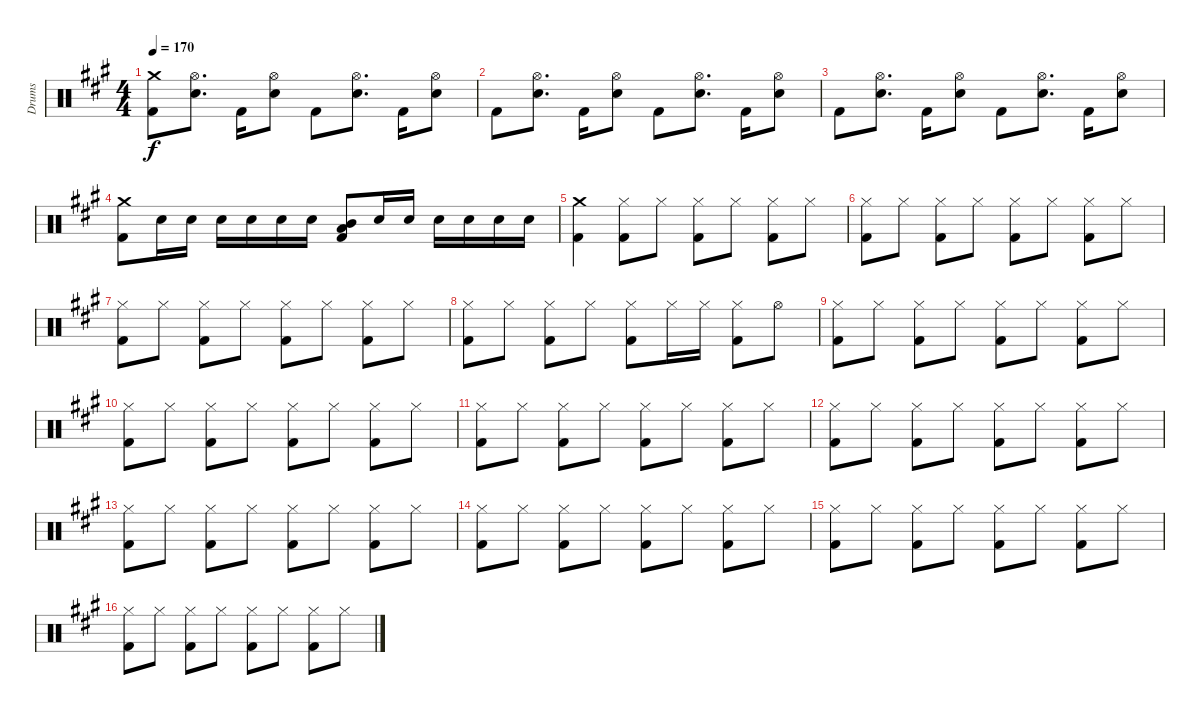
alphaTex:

\track ("Drums" "Drums") {instrument percussion}
\staff {score}
\articulation defaults
\ts (4 4)
\tempo 170
\clef neutral
\ks a
("Crash medium (hit)" "Kick (hit) 2").8{dy f} ("Hi-Hat (open)" "Electric Snare (hit)").8{d} "Kick (hit) 2".16 ("Hi-Hat (open)" "Electric Snare (hit)").8 "Kick (hit) 2".8 ("Hi-Hat (open)" "Electric Snare (hit)").8{d} "Kick (hit) 2".16 ("Hi-Hat (open)" "Electric Snare (hit)").8 |
"Kick (hit) 2".8 ("Hi-Hat (open)" "Electric Snare (hit)").8{d} "Kick (hit) 2".16 ("Hi-Hat (open)" "Electric Snare (hit)").8 "Kick (hit) 2".8 ("Hi-Hat (open)" "Electric Snare (hit)").8{d} "Kick (hit) 2".16 ("Hi-Hat (open)" "Electric Snare (hit)").8 |
"Kick (hit) 2".8 ("Hi-Hat (open)" "Electric Snare (hit)").8{d} "Kick (hit) 2".16 ("Hi-Hat (open)" "Electric Snare (hit)").8 "Kick (hit) 2".8 ("Hi-Hat (open)" "Electric Snare (hit)").8{d} "Kick (hit) 2".16 ("Hi-Hat (open)" "Electric Snare (hit)").8 |
("Crash medium (hit)" "Kick (hit) 2").8 "Electric Snare (hit)".16 "Electric Snare (hit)".16 "Electric Snare (hit)".16 "Electric Snare (hit)".16 "Electric Snare (hit)".16 "Electric Snare (hit)".16 ("Low Tom (hit)" "Mid Tom (hit)" "Kick (hit) 2").8 "Electric Snare (hit)".16 "Electric Snare (hit)".16 "Electric Snare (hit)".16 "Electric Snare (hit)".16 "Electric Snare (hit)".16 "Electric Snare (hit)".16 |
("Crash medium (hit)" "Kick (hit) 2").4 ("Hi-Hat (closed)" "Kick (hit) 2").8 "Hi-Hat (closed)".8 ("Hi-Hat (closed)" "Kick (hit) 2").8 "Hi-Hat (closed)".8 ("Hi-Hat (closed)" "Kick (hit) 2").8 "Hi-Hat (closed)".8 |
("Hi-Hat (closed)" "Kick (hit) 2").8 "Hi-Hat (closed)".8 ("Hi-Hat (closed)" "Kick (hit) 2").8 "Hi-Hat (closed)".8 ("Hi-Hat (closed)" "Kick (hit) 2").8 "Hi-Hat (closed)".8 ("Hi-Hat (closed)" "Kick (hit) 2").8 "Hi-Hat (closed)".8 |
("Hi-Hat (closed)" "Kick (hit) 2").8 "Hi-Hat (closed)".8 ("Hi-Hat (closed)" "Kick (hit) 2").8 "Hi-Hat (closed)".8 ("Hi-Hat (closed)" "Kick (hit) 2").8 "Hi-Hat (closed)".8 ("Hi-Hat (closed)" "Kick (hit) 2").8 "Hi-Hat (closed)".8 |
("Hi-Hat (closed)" "Kick (hit) 2").8 "Hi-Hat (closed)".8 ("Hi-Hat (closed)" "Kick (hit) 2").8 "Hi-Hat (closed)".8 ("Hi-Hat (closed)" "Kick (hit) 2").8 "Hi-Hat (closed)".16 "Hi-Hat (closed)".16 ("Hi-Hat (closed)" "Kick (hit) 2").8 "Hi-Hat (open)".8 |
("Hi-Hat (closed)" "Kick (hit) 2").8 "Hi-Hat (closed)".8 ("Hi-Hat (closed)" "Kick (hit) 2").8 "Hi-Hat (closed)".8 ("Hi-Hat (closed)" "Kick (hit) 2").8 "Hi-Hat (closed)".8 ("Hi-Hat (closed)" "Kick (hit) 2").8 "Hi-Hat (closed)".8 |
("Hi-Hat (closed)" "Kick (hit) 2").8 "Hi-Hat (closed)".8 ("Hi-Hat (closed)" "Kick (hit) 2").8 "Hi-Hat (closed)".8 ("Hi-Hat (closed)" "Kick (hit) 2").8 "Hi-Hat (closed)".8 ("Hi-Hat (closed)" "Kick (hit) 2").8 "Hi-Hat (closed)".8 |
("Hi-Hat (closed)" "Kick (hit) 2").8 "Hi-Hat (closed)".8 ("Hi-Hat (closed)" "Kick (hit) 2").8 "Hi-Hat (closed)".8 ("Hi-Hat (closed)" "Kick (hit) 2").8 "Hi-Hat (closed)".8 ("Hi-Hat (closed)" "Kick (hit) 2").8 "Hi-Hat (closed)".8 |
("Hi-Hat (closed)" "Kick (hit) 2").8 "Hi-Hat (closed)".8 ("Hi-Hat (closed)" "Kick (hit) 2").8 "Hi-Hat (closed)".8 ("Hi-Hat (closed)" "Kick (hit) 2").8 "Hi-Hat (closed)".8 ("Hi-Hat (closed)" "Kick (hit) 2").8 "Hi-Hat (closed)".8 |
("Hi-Hat (closed)" "Kick (hit) 2").8 "Hi-Hat (closed)".8 ("Hi-Hat (closed)" "Kick (hit) 2").8 "Hi-Hat (closed)".8 ("Hi-Hat (closed)" "Kick (hit) 2").8 "Hi-Hat (closed)".8 ("Hi-Hat (closed)" "Kick (hit) 2").8 "Hi-Hat (closed)".8 |
("Hi-Hat (closed)" "Kick (hit) 2").8 "Hi-Hat (closed)".8 ("Hi-Hat (closed)" "Kick (hit) 2").8 "Hi-Hat (closed)".8 ("Hi-Hat (closed)" "Kick (hit) 2").8 "Hi-Hat (closed)".8 ("Hi-Hat (closed)" "Kick (hit) 2").8 "Hi-Hat (closed)".8 |
("Hi-Hat (closed)" "Kick (hit) 2").8 "Hi-Hat (closed)".8 ("Hi-Hat (closed)" "Kick (hit) 2").8 "Hi-Hat (closed)".8 ("Hi-Hat (closed)" "Kick (hit) 2").8 "Hi-Hat (closed)".8 ("Hi-Hat (closed)" "Kick (hit) 2").8 "Hi-Hat (closed)".8 |
("Hi-Hat (closed)" "Kick (hit) 2").8 "Hi-Hat (closed)".8 ("Hi-Hat (closed)" "Kick (hit) 2").8 "Hi-Hat (closed)".8 ("Hi-Hat (closed)" "Kick (hit) 2").8 "Hi-Hat (closed)".8 ("Hi-Hat (closed)" "Kick (hit) 2").8 "Hi-Hat (closed)".8
